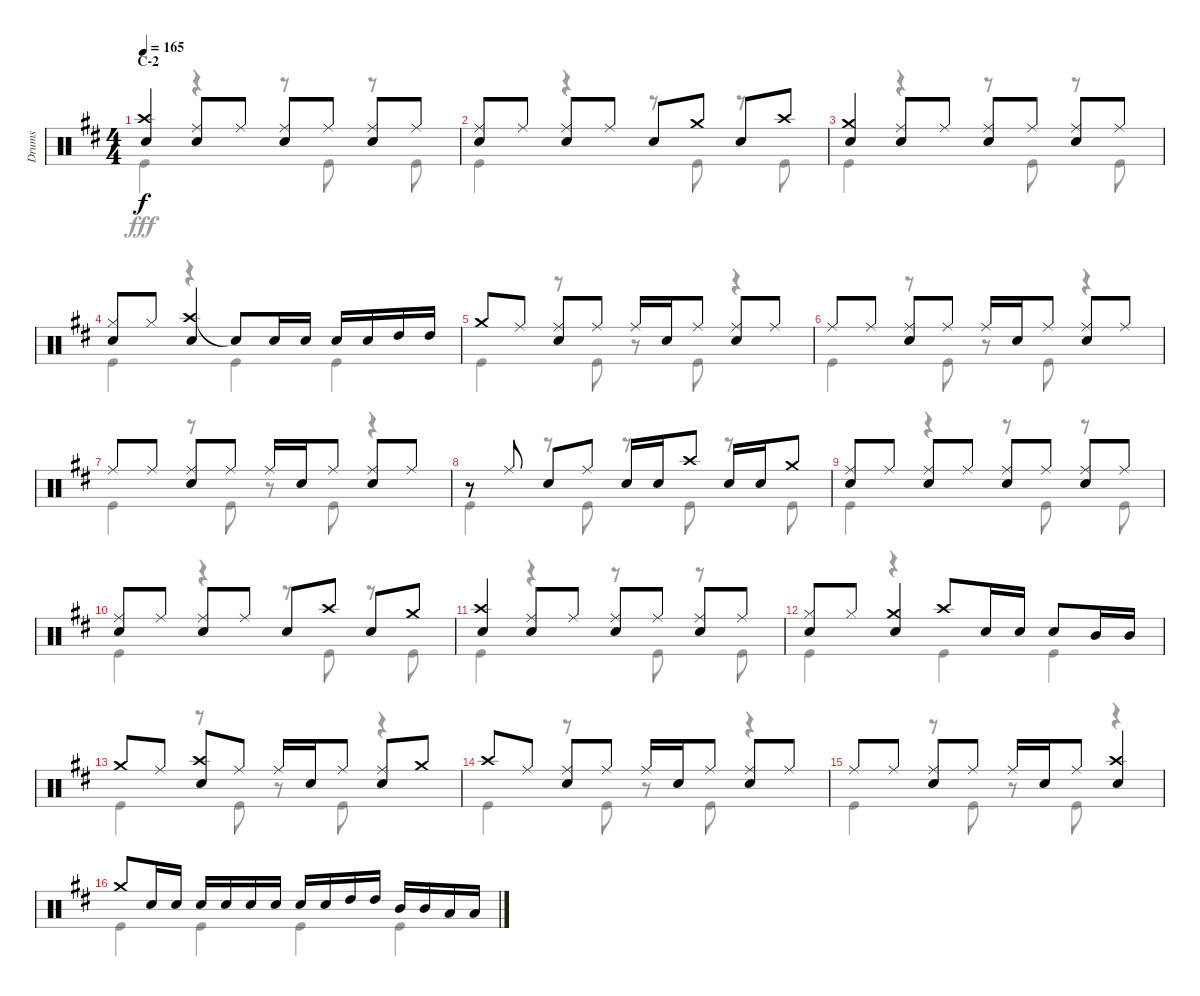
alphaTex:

\track ("Drums" "Drums") {instrument percussion}
\staff {score}
\articulation defaults
\voice
\ts (4 4)
\section ("" "C-2")
\tempo 165
\clef neutral
\ks d
("Crash high (hit)" "Snare (hit) 2").4{dy f} ("Ride (middle)" "Snare (hit) 2").8 "Ride (middle)".8 ("Ride (middle)" "Snare (hit) 2").8 "Ride (middle)".8 ("Ride (middle)" "Snare (hit) 2").8 "Ride (middle)".8 |
("Ride (middle)" "Snare (hit) 2").8 "Ride (middle)".8 ("Ride (middle)" "Snare (hit) 2").8 "Ride (middle)".8 "Snare (hit) 2".8 "Crash medium (hit)".8 "Snare (hit) 2".8 "Crash high (hit)".8 |
("Crash medium (hit)" "Snare (hit) 2").4 ("Ride (middle)" "Snare (hit) 2").8 "Ride (middle)".8 ("Ride (middle)" "Snare (hit) 2").8 "Ride (middle)".8 ("Ride (middle)" "Snare (hit) 2").8 "Ride (middle)".8 |
("Hi-Hat (closed)" "Snare (hit) 2").8 "Hi-Hat (closed)".8 ("Crash high (hit)" "Snare (hit) 2").4 "Snare (hit)"{t}.8 "Snare (hit) 2".16 "Snare (hit) 2".16 "Snare (hit) 2".16 "Snare (hit) 2".16 "High Tom (hit)".16 "High Tom (hit)".16 |
"Crash medium (hit)".8 "Ride (middle)".8 ("Ride (middle)" "Snare (hit) 2").8 "Ride (middle)".8 "Ride (middle)".16 "Snare (hit) 2".16 "Ride (middle)".8 ("Ride (middle)" "Snare (hit) 2").8 "Ride (middle)".8 |
"Ride (middle)".8 "Ride (middle)".8 ("Ride (middle)" "Snare (hit) 2").8 "Ride (middle)".8 "Ride (middle)".16 "Snare (hit) 2".16 "Ride (middle)".8 ("Ride (middle)" "Snare (hit) 2").8 "Ride (middle)".8 |
"Ride (middle)".8 "Ride (middle)".8 ("Ride (middle)" "Snare (hit) 2").8 "Ride (middle)".8 "Ride (middle)".16 "Snare (hit) 2".16 "Ride (middle)".8 ("Ride (middle)" "Snare (hit) 2").8 "Ride (middle)".8 |
r.8 "Ride (middle)".8 "Snare (hit) 2".8 "Ride (middle)".8 "Snare (hit) 2".16 "Snare (hit) 2".16 "Crash high (hit)".8 "Snare (hit) 2".16 "Snare (hit) 2".16 "Crash medium (hit)".8 |
("Ride (middle)" "Snare (hit) 2").8 "Ride (middle)".8 ("Ride (middle)" "Snare (hit) 2").8 "Ride (middle)".8 ("Ride (middle)" "Snare (hit) 2").8 "Ride (middle)".8 ("Ride (middle)" "Snare (hit) 2").8 "Ride (middle)".8 |
("Ride (middle)" "Snare (hit) 2").8 "Ride (middle)".8 ("Ride (middle)" "Snare (hit) 2").8 "Ride (middle)".8 "Snare (hit) 2".8 "Crash high (hit)".8 "Snare (hit) 2".8 "Crash medium (hit)".8 |
("Crash high (hit)" "Snare (hit) 2").4 ("Ride (middle)" "Snare (hit) 2").8 "Ride (middle)".8 ("Ride (middle)" "Snare (hit) 2").8 "Ride (middle)".8 ("Ride (middle)" "Snare (hit) 2").8 "Ride (middle)".8 |
("Hi-Hat (closed)" "Snare (hit) 2").8 "Hi-Hat (closed)".8 ("Crash medium (hit)" "Snare (hit) 2").4 "Crash high (hit)".8 "Snare (hit) 2".16 "Snare (hit) 2".16 "Snare (hit) 2".8 "Mid Tom (hit)".16 "Mid Tom (hit)".16 |
"Crash medium (hit)".8 "Ride (middle)".8 ("Crash high (hit)" "Snare (hit) 2").8 "Ride (middle)".8 "Ride (middle)".16 "Snare (hit) 2".16 "Ride (middle)".8 ("Ride (middle)" "Snare (hit) 2").8 "Crash medium (hit)".8 |
"Crash high (hit)".8 "Ride (middle)".8 ("Ride (middle)" "Snare (hit) 2").8 "Ride (middle)".8 "Ride (middle)".16 "Snare (hit) 2".16 "Ride (middle)".8 ("Ride (middle)" "Snare (hit) 2").8 "Ride (middle)".8 |
"Ride (middle)".8 "Ride (middle)".8 ("Ride (middle)" "Snare (hit) 2").8 "Ride (middle)".8 "Ride (middle)".16 "Snare (hit) 2".16 "Ride (middle)".8 ("Crash high (hit)" "Snare (hit) 2").4 |
"Crash medium (hit)".8 "Snare (hit) 2".16 "Snare (hit) 2".16 "Snare (hit) 2".16 "Snare (hit) 2".16 "Snare (hit) 2".16 "Snare (hit) 2".16 "Snare (hit) 2".16 "Snare (hit) 2".16 "High Tom (hit)".16 "High Tom (hit)".16 "Mid Tom (hit)".16 "Mid Tom (hit)".16 "Low Tom (hit)".16 "Low Tom (hit)".16
\voice
\clef neutral
\ottava regular
\simile none
\ks d "Kick (hit)".4{dy fff}
r.4 r.8 "Kick (hit)".8 r.8 "Kick (hit)".8 |
"Kick (hit)".4 r.4 r.8 "Kick (hit)".8 r.8 "Kick (hit)".8 |
"Kick (hit)".4 r.4 r.8 "Kick (hit)".8 r.8 "Kick (hit)".8 |
"Kick (hit)".4 r.4 "Kick (hit)".4 "Kick (hit)".4 |
"Kick (hit)".4 r.8 "Kick (hit)".8 r.8 "Kick (hit)".8 r.4 |
"Kick (hit)".4 r.8 "Kick (hit)".8 r.8 "Kick (hit)".8 r.4 |
"Kick (hit)".4 r.8 "Kick (hit)".8 r.8 "Kick (hit)".8 r.4 |
"Kick (hit)".4 r.8 "Kick (hit)".8 r.8 "Kick (hit)".8 r.8 "Kick (hit)".8 |
"Kick (hit)".4 r.4 r.8 "Kick (hit)".8 r.8 "Kick (hit)".8 |
"Kick (hit)".4 r.4 r.8 "Kick (hit)".8 r.8 "Kick (hit)".8 |
"Kick (hit)".4 r.4 r.8 "Kick (hit)".8 r.8 "Kick (hit)".8 |
"Kick (hit)".4 r.4 "Kick (hit)".4 "Kick (hit)".4 |
"Kick (hit)".4 r.8 "Kick (hit)".8 r.8 "Kick (hit)".8 r.4 |
"Kick (hit)".4 r.8 "Kick (hit)".8 r.8 "Kick (hit)".8 r.4 |
"Kick (hit)".4 r.8 "Kick (hit)".8 r.8 "Kick (hit)".8 r.4 |
"Kick (hit)".4 "Kick (hit)".4 "Kick (hit)".4 "Kick (hit)".4
